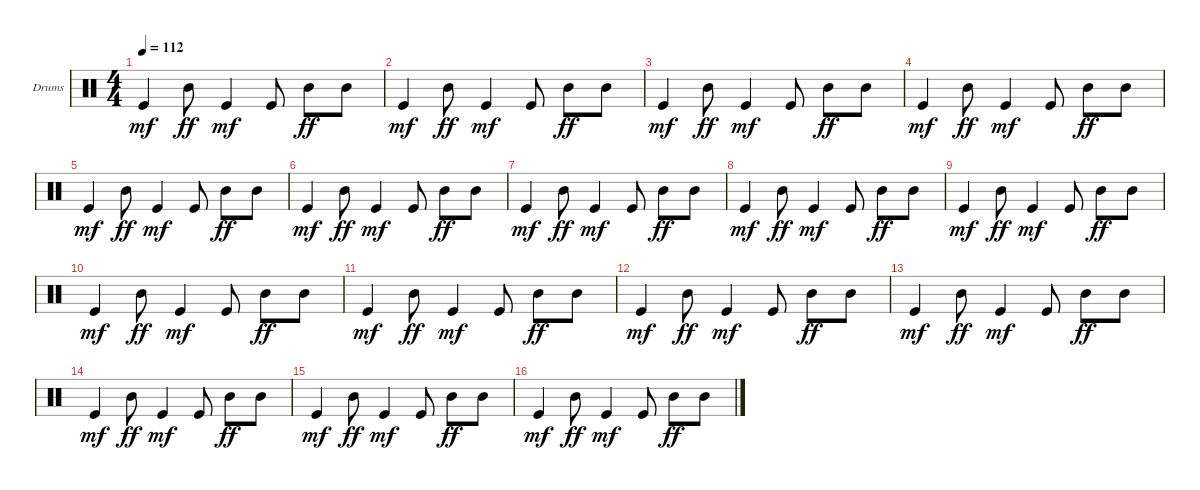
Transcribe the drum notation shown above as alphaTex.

\defaultSystemsLayout 4
\bracketExtendMode groupsimilarinstruments
\firstSystemTrackNameOrientation horizontal
\otherSystemsTrackNameOrientation horizontal
\track ("Drumkit" "Drums") {instrument percussion}
\staff {score}
\articulation defaults
\ts (4 4)
\tempo 112
\clef neutral
\scale
1.07945
\ks c "Kick (hit)".4{dy mf} "Mid Tom (hit)".8{dy ff} "Kick (hit)".4{dy mf} "Kick (hit)".8 "Mid Tom (hit)".8{dy ff} "Mid Tom (hit)".8
|
\scale
0.973518 "Kick (hit)".4{dy mf} "Mid Tom (hit)".8{dy ff} "Kick (hit)".4{dy mf} "Kick (hit)".8 "Mid Tom (hit)".8{dy ff} "Mid Tom (hit)".8 |
\scale
0.973518 "Kick (hit)".4{dy mf} "Mid Tom (hit)".8{dy ff} "Kick (hit)".4{dy mf} "Kick (hit)".8 "Mid Tom (hit)".8{dy ff} "Mid Tom (hit)".8 |
\scale
0.973518 "Kick (hit)".4{dy mf} "Mid Tom (hit)".8{dy ff} "Kick (hit)".4{dy mf} "Kick (hit)".8 "Mid Tom (hit)".8{dy ff} "Mid Tom (hit)".8 |
\scale
1.07945 "Kick (hit)".4{dy mf} "Mid Tom (hit)".8{dy ff} "Kick (hit)".4{dy mf} "Kick (hit)".8 "Mid Tom (hit)".8{dy ff} "Mid Tom (hit)".8 |
\scale
0.973518 "Kick (hit)".4{dy mf} "Mid Tom (hit)".8{dy ff} "Kick (hit)".4{dy mf} "Kick (hit)".8 "Mid Tom (hit)".8{dy ff} "Mid Tom (hit)".8 |
\scale
0.973518 "Kick (hit)".4{dy mf} "Mid Tom (hit)".8{dy ff} "Kick (hit)".4{dy mf} "Kick (hit)".8 "Mid Tom (hit)".8{dy ff} "Mid Tom (hit)".8 |
\scale
0.973518 "Kick (hit)".4{dy mf} "Mid Tom (hit)".8{dy ff} "Kick (hit)".4{dy mf} "Kick (hit)".8 "Mid Tom (hit)".8{dy ff} "Mid Tom (hit)".8 |
\scale
1.07945 "Kick (hit)".4{dy mf} "Mid Tom (hit)".8{dy ff} "Kick (hit)".4{dy mf} "Kick (hit)".8 "Mid Tom (hit)".8{dy ff} "Mid Tom (hit)".8 |
\scale
0.973518 "Kick (hit)".4{dy mf} "Mid Tom (hit)".8{dy ff} "Kick (hit)".4{dy mf} "Kick (hit)".8 "Mid Tom (hit)".8{dy ff} "Mid Tom (hit)".8 |
\scale
0.973518 "Kick (hit)".4{dy mf} "Mid Tom (hit)".8{dy ff} "Kick (hit)".4{dy mf} "Kick (hit)".8 "Mid Tom (hit)".8{dy ff} "Mid Tom (hit)".8 |
\scale
0.973518 "Kick (hit)".4{dy mf} "Mid Tom (hit)".8{dy ff} "Kick (hit)".4{dy mf} "Kick (hit)".8 "Mid Tom (hit)".8{dy ff} "Mid Tom (hit)".8 |
"Kick (hit)".4{dy mf} "Mid Tom (hit)".8{dy ff} "Kick (hit)".4{dy mf} "Kick (hit)".8 "Mid Tom (hit)".8{dy ff} "Mid Tom (hit)".8 |
"Kick (hit)".4{dy mf} "Mid Tom (hit)".8{dy ff} "Kick (hit)".4{dy mf} "Kick (hit)".8 "Mid Tom (hit)".8{dy ff} "Mid Tom (hit)".8 |
"Kick (hit)".4{dy mf} "Mid Tom (hit)".8{dy ff} "Kick (hit)".4{dy mf} "Kick (hit)".8 "Mid Tom (hit)".8{dy ff} "Mid Tom (hit)".8 |
"Kick (hit)".4{dy mf} "Mid Tom (hit)".8{dy ff} "Kick (hit)".4{dy mf} "Kick (hit)".8 "Mid Tom (hit)".8{dy ff} "Mid Tom (hit)".8
